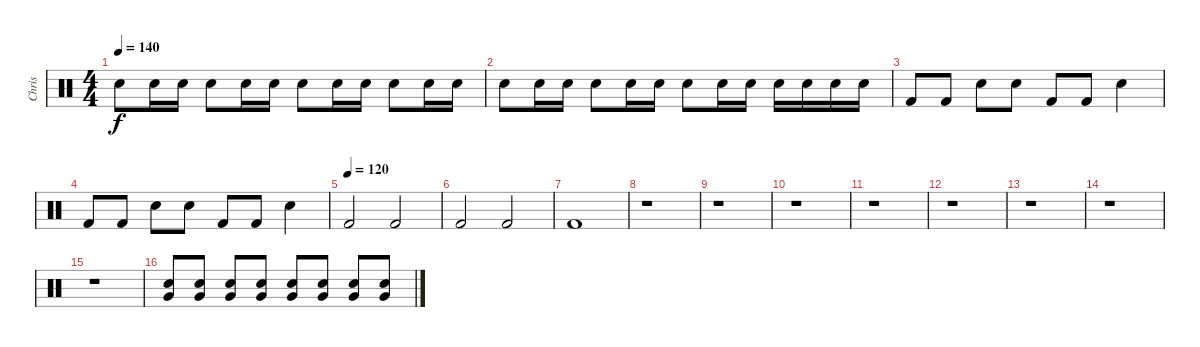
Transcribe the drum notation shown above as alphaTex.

\track ("Chris" "Chris") {instrument percussion}
\staff {score}
\articulation defaults
\ts (4 4)
\tempo 140
\clef neutral
\ks c "Snare (hit) 2".8{dy f} "Snare (hit) 2".16 "Snare (hit) 2".16 "Snare (hit) 2".8 "Snare (hit) 2".16 "Snare (hit) 2".16 "Snare (hit) 2".8 "Snare (hit) 2".16 "Snare (hit) 2".16 "Snare (hit) 2".8 "Snare (hit) 2".16 "Snare (hit) 2".16
|
"Snare (hit) 2".8 "Snare (hit) 2".16 "Snare (hit) 2".16 "Snare (hit) 2".8 "Snare (hit) 2".16 "Snare (hit) 2".16 "Snare (hit) 2".8 "Snare (hit) 2".16 "Snare (hit) 2".16 "Snare (hit) 2".16 "Snare (hit) 2".16 "Snare (hit) 2".16 "Snare (hit) 2".16 |
"Kick (hit) 2".8 "Kick (hit) 2".8 "Snare (hit) 2".8 "Snare (hit) 2".8 "Kick (hit) 2".8 "Kick (hit) 2".8 "Snare (hit) 2".4 |
"Kick (hit) 2".8 "Kick (hit) 2".8 "Snare (hit) 2".8 "Snare (hit) 2".8 "Kick (hit) 2".8 "Kick (hit) 2".8 "Snare (hit) 2".4 |
\tempo (120)
"Kick (hit) 2".2 "Kick (hit) 2".2 |
"Kick (hit) 2".2 "Kick (hit) 2".2 |
"Kick (hit) 2".1 |
r.1 |
r.1 |
r.1 |
r.1 |
r.1 |
r.1 |
r.1 |
r.1 |
("Snare (hit) 2" "Very Low Tom (hit)").8 ("Snare (hit) 2" "Very Low Tom (hit)").8 ("Snare (hit) 2" "Very Low Tom (hit)").8 ("Snare (hit) 2" "Very Low Tom (hit)").8 ("Snare (hit) 2" "Very Low Tom (hit)").8 ("Snare (hit) 2" "Very Low Tom (hit)").8 ("Snare (hit) 2" "Very Low Tom (hit)").8 ("Snare (hit) 2" "Very Low Tom (hit)").8
